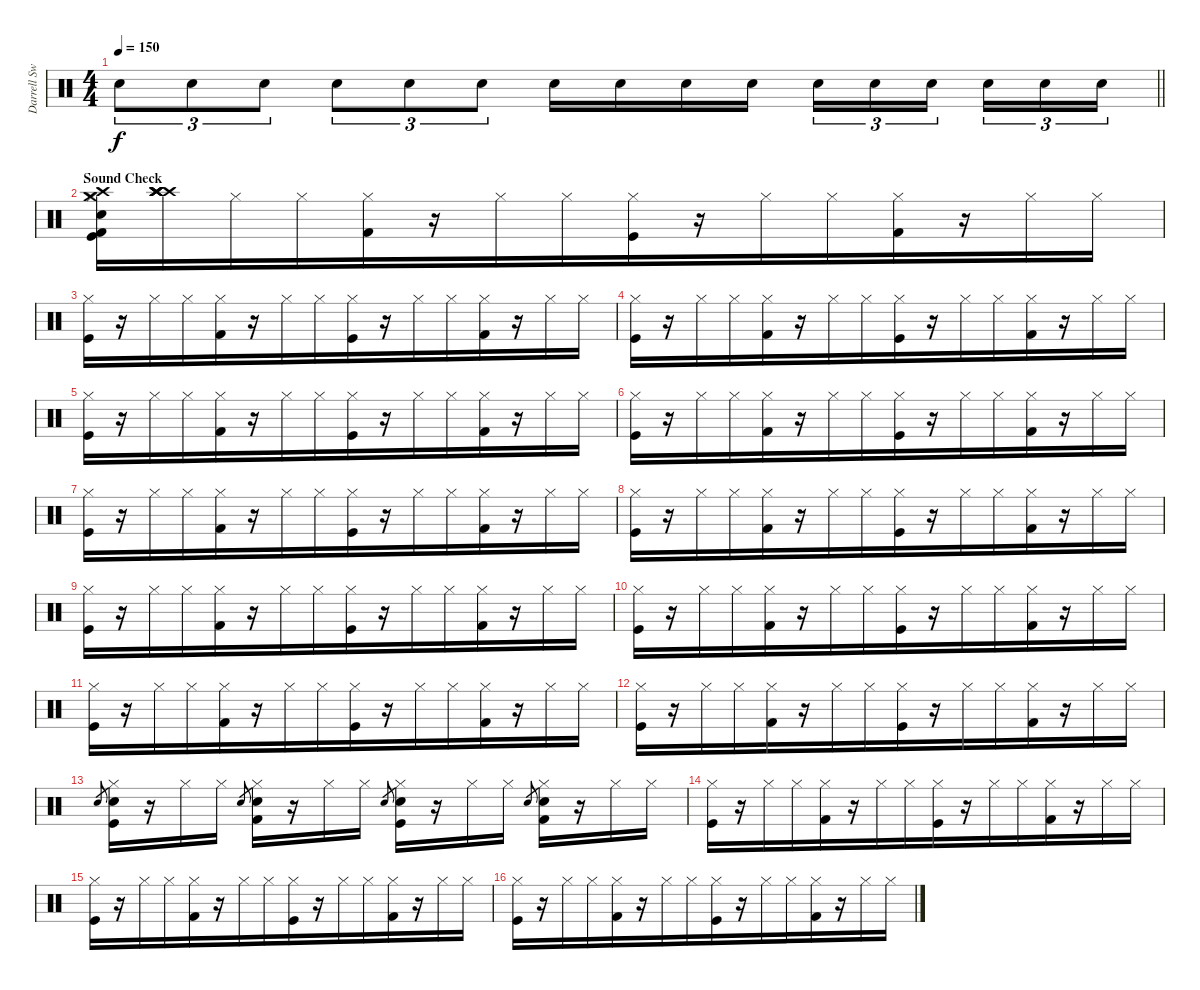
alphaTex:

\track ("Darrell Sweet (drums)" "Darrell Sw") {instrument percussion}
\staff {score}
\articulation defaults
\ts (4 4)
\tempo 150
\clef neutral
\barLineRight lightlight
\ks c "Snare (hit) 2".8{tu (3 2) dy f} "Snare (hit) 2".8{tu (3 2)} "Snare (hit) 2".8{tu (3 2)} "Snare (hit) 2".8{tu (3 2)} "Snare (hit) 2".8{tu (3 2)} "Snare (hit) 2".8{tu (3 2)} "Snare (hit) 2".16 "Snare (hit) 2".16 "Snare (hit) 2".16 "Snare (hit) 2".16 "Snare (hit) 2".16{tu (3 2)} "Snare (hit) 2".16{tu (3 2)} "Snare (hit) 2".16{tu (3 2) beam splitsecondary} "Snare (hit) 2".16{tu (3 2)} "Snare (hit) 2".16{tu (3 2)} "Snare (hit) 2".16{tu (3 2)}
|
\section ("" "Sound Check")
("Crash high (hit)" "Snare (hit) 2" "Hi-Hat (closed)" "Kick (hit)" "Kick (hit) 2" "Crash medium (hit)").16 ("Crash high (hit)" "Crash high (hit)" "Crash high (hit)" "Crash high (hit)" "Crash high (hit)" "Crash high (hit)").16 "Hi-Hat (closed)".16 "Hi-Hat (closed)".16{beam merge} ("Hi-Hat (closed)" "Kick (hit) 2").16 r.16 "Hi-Hat (closed)".16 "Hi-Hat (closed)".16{beam merge} ("Hi-Hat (closed)" "Kick (hit)").16 r.16 "Hi-Hat (closed)".16 "Hi-Hat (closed)".16{beam merge} ("Hi-Hat (closed)" "Kick (hit) 2").16 r.16 "Hi-Hat (closed)".16 "Hi-Hat (closed)".16 |
("Hi-Hat (closed)" "Kick (hit)").16 r.16 "Hi-Hat (closed)".16 "Hi-Hat (closed)".16{beam merge} ("Hi-Hat (closed)" "Kick (hit) 2").16 r.16 "Hi-Hat (closed)".16 "Hi-Hat (closed)".16{beam merge} ("Hi-Hat (closed)" "Kick (hit)").16 r.16 "Hi-Hat (closed)".16 "Hi-Hat (closed)".16{beam merge} ("Hi-Hat (closed)" "Kick (hit) 2").16 r.16 "Hi-Hat (closed)".16 "Hi-Hat (closed)".16 |
("Hi-Hat (closed)" "Kick (hit)").16 r.16 "Hi-Hat (closed)".16 "Hi-Hat (closed)".16{beam merge} ("Hi-Hat (closed)" "Kick (hit) 2").16 r.16 "Hi-Hat (closed)".16 "Hi-Hat (closed)".16{beam merge} ("Hi-Hat (closed)" "Kick (hit)").16 r.16 "Hi-Hat (closed)".16 "Hi-Hat (closed)".16{beam merge} ("Hi-Hat (closed)" "Kick (hit) 2").16 r.16 "Hi-Hat (closed)".16 "Hi-Hat (closed)".16 |
("Hi-Hat (closed)" "Kick (hit)").16 r.16 "Hi-Hat (closed)".16 "Hi-Hat (closed)".16{beam merge} ("Hi-Hat (closed)" "Kick (hit) 2").16 r.16 "Hi-Hat (closed)".16 "Hi-Hat (closed)".16{beam merge} ("Hi-Hat (closed)" "Kick (hit)").16 r.16 "Hi-Hat (closed)".16 "Hi-Hat (closed)".16{beam merge} ("Hi-Hat (closed)" "Kick (hit) 2").16 r.16 "Hi-Hat (closed)".16 "Hi-Hat (closed)".16 |
("Hi-Hat (closed)" "Kick (hit)").16 r.16 "Hi-Hat (closed)".16 "Hi-Hat (closed)".16{beam merge} ("Hi-Hat (closed)" "Kick (hit) 2").16 r.16 "Hi-Hat (closed)".16 "Hi-Hat (closed)".16{beam merge} ("Hi-Hat (closed)" "Kick (hit)").16 r.16 "Hi-Hat (closed)".16 "Hi-Hat (closed)".16{beam merge} ("Hi-Hat (closed)" "Kick (hit) 2").16 r.16 "Hi-Hat (closed)".16 "Hi-Hat (closed)".16 |
("Hi-Hat (closed)" "Kick (hit)").16 r.16 "Hi-Hat (closed)".16 "Hi-Hat (closed)".16{beam merge} ("Hi-Hat (closed)" "Kick (hit) 2").16 r.16 "Hi-Hat (closed)".16 "Hi-Hat (closed)".16{beam merge} ("Hi-Hat (closed)" "Kick (hit)").16 r.16 "Hi-Hat (closed)".16 "Hi-Hat (closed)".16{beam merge} ("Hi-Hat (closed)" "Kick (hit) 2").16 r.16 "Hi-Hat (closed)".16 "Hi-Hat (closed)".16 |
("Hi-Hat (closed)" "Kick (hit)").16 r.16 "Hi-Hat (closed)".16 "Hi-Hat (closed)".16{beam merge} ("Hi-Hat (closed)" "Kick (hit) 2").16 r.16 "Hi-Hat (closed)".16 "Hi-Hat (closed)".16{beam merge} ("Hi-Hat (closed)" "Kick (hit)").16 r.16 "Hi-Hat (closed)".16 "Hi-Hat (closed)".16{beam merge} ("Hi-Hat (closed)" "Kick (hit) 2").16 r.16 "Hi-Hat (closed)".16 "Hi-Hat (closed)".16 |
("Hi-Hat (closed)" "Kick (hit)").16 r.16 "Hi-Hat (closed)".16 "Hi-Hat (closed)".16{beam merge} ("Hi-Hat (closed)" "Kick (hit) 2").16 r.16 "Hi-Hat (closed)".16 "Hi-Hat (closed)".16{beam merge} ("Hi-Hat (closed)" "Kick (hit)").16 r.16 "Hi-Hat (closed)".16 "Hi-Hat (closed)".16{beam merge} ("Hi-Hat (closed)" "Kick (hit) 2").16 r.16 "Hi-Hat (closed)".16 "Hi-Hat (closed)".16 |
("Hi-Hat (closed)" "Kick (hit)").16 r.16 "Hi-Hat (closed)".16 "Hi-Hat (closed)".16{beam merge} ("Hi-Hat (closed)" "Kick (hit) 2").16 r.16 "Hi-Hat (closed)".16 "Hi-Hat (closed)".16{beam merge} ("Hi-Hat (closed)" "Kick (hit)").16 r.16 "Hi-Hat (closed)".16 "Hi-Hat (closed)".16{beam merge} ("Hi-Hat (closed)" "Kick (hit) 2").16 r.16 "Hi-Hat (closed)".16 "Hi-Hat (closed)".16 |
("Hi-Hat (closed)" "Kick (hit)").16 r.16 "Hi-Hat (closed)".16 "Hi-Hat (closed)".16{beam merge} ("Hi-Hat (closed)" "Kick (hit) 2").16 r.16 "Hi-Hat (closed)".16 "Hi-Hat (closed)".16{beam merge} ("Hi-Hat (closed)" "Kick (hit)").16 r.16 "Hi-Hat (closed)".16 "Hi-Hat (closed)".16{beam merge} ("Hi-Hat (closed)" "Kick (hit) 2").16 r.16 "Hi-Hat (closed)".16 "Hi-Hat (closed)".16 |
("Hi-Hat (closed)" "Kick (hit)").16 r.16 "Hi-Hat (closed)".16 "Hi-Hat (closed)".16{beam merge} ("Hi-Hat (closed)" "Kick (hit) 2").16 r.16 "Hi-Hat (closed)".16 "Hi-Hat (closed)".16{beam merge} ("Hi-Hat (closed)" "Kick (hit)").16 r.16 "Hi-Hat (closed)".16 "Hi-Hat (closed)".16{beam merge} ("Hi-Hat (closed)" "Kick (hit) 2").16 r.16 "Hi-Hat (closed)".16 "Hi-Hat (closed)".16 |
"Snare (hit) 2".8{gr} ("Hi-Hat (closed)" "Kick (hit)" "Snare (hit) 2").16 r.16 "Hi-Hat (closed)".16 "Hi-Hat (closed)".16 "Snare (hit) 2".8{gr beam merge} ("Hi-Hat (closed)" "Kick (hit) 2" "Snare (hit) 2").16 r.16 "Hi-Hat (closed)".16 "Hi-Hat (closed)".16 "Snare (hit) 2".8{gr beam merge} ("Hi-Hat (closed)" "Kick (hit)" "Snare (hit) 2").16 r.16 "Hi-Hat (closed)".16 "Hi-Hat (closed)".16 "Snare (hit) 2".8{gr beam merge} ("Hi-Hat (closed)" "Kick (hit) 2" "Snare (hit) 2").16 r.16 "Hi-Hat (closed)".16 "Hi-Hat (closed)".16 |
("Hi-Hat (closed)" "Kick (hit)").16 r.16 "Hi-Hat (closed)".16 "Hi-Hat (closed)".16{beam merge} ("Hi-Hat (closed)" "Kick (hit) 2").16 r.16 "Hi-Hat (closed)".16 "Hi-Hat (closed)".16{beam merge} ("Hi-Hat (closed)" "Kick (hit)").16 r.16 "Hi-Hat (closed)".16 "Hi-Hat (closed)".16{beam merge} ("Hi-Hat (closed)" "Kick (hit) 2").16 r.16 "Hi-Hat (closed)".16 "Hi-Hat (closed)".16 |
("Hi-Hat (closed)" "Kick (hit)").16 r.16 "Hi-Hat (closed)".16 "Hi-Hat (closed)".16{beam merge} ("Hi-Hat (closed)" "Kick (hit) 2").16 r.16 "Hi-Hat (closed)".16 "Hi-Hat (closed)".16{beam merge} ("Hi-Hat (closed)" "Kick (hit)").16 r.16 "Hi-Hat (closed)".16 "Hi-Hat (closed)".16{beam merge} ("Hi-Hat (closed)" "Kick (hit) 2").16 r.16 "Hi-Hat (closed)".16 "Hi-Hat (closed)".16 |
("Hi-Hat (closed)" "Kick (hit)").16 r.16 "Hi-Hat (closed)".16 "Hi-Hat (closed)".16{beam merge} ("Hi-Hat (closed)" "Kick (hit) 2").16 r.16 "Hi-Hat (closed)".16 "Hi-Hat (closed)".16{beam merge} ("Hi-Hat (closed)" "Kick (hit)").16 r.16 "Hi-Hat (closed)".16 "Hi-Hat (closed)".16{beam merge} ("Hi-Hat (closed)" "Kick (hit) 2").16 r.16 "Hi-Hat (closed)".16 "Hi-Hat (closed)".16
